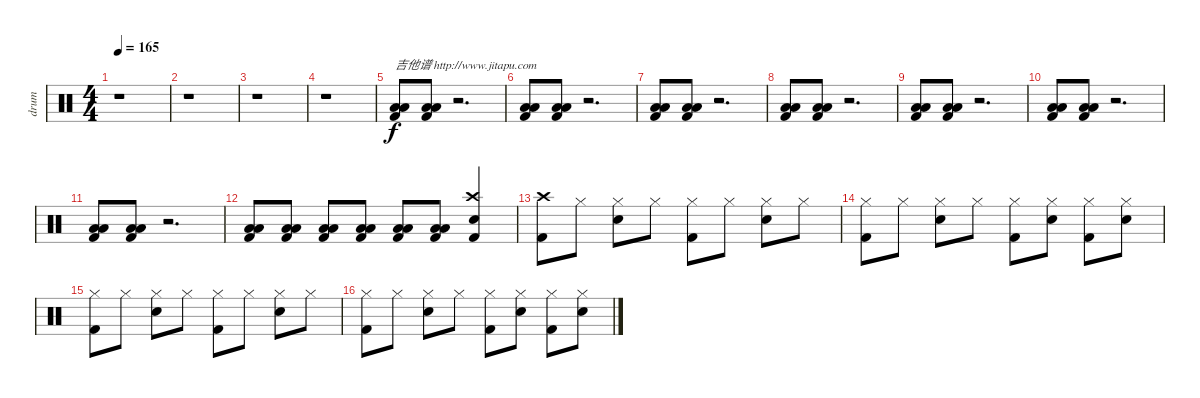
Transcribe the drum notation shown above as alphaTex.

\track ("drum" "drum") {instrument percussion}
\staff {score}
\articulation defaults
\ts (4 4)
\tempo 165
\clef neutral
\ks c
r.1{dy f} |
r.1 |
r.1 |
r.1 |
("Low Floor Tom (hit)" "Low Floor Tom (hit)" "Kick (hit) 2").8{txt "吉他谱 http://www.jitapu.com"} ("Low Floor Tom (hit)" "Low Floor Tom (hit)" "Kick (hit) 2").8 r.2{d} |
("Low Floor Tom (hit)" "Low Floor Tom (hit)" "Kick (hit) 2").8 ("Low Floor Tom (hit)" "Low Floor Tom (hit)" "Kick (hit) 2").8 r.2{d} |
("Low Floor Tom (hit)" "Low Floor Tom (hit)" "Kick (hit) 2").8 ("Low Floor Tom (hit)" "Low Floor Tom (hit)" "Kick (hit) 2").8 r.2{d} |
("Low Floor Tom (hit)" "Low Floor Tom (hit)" "Kick (hit) 2").8 ("Low Floor Tom (hit)" "Low Floor Tom (hit)" "Kick (hit) 2").8 r.2{d} |
("Low Floor Tom (hit)" "Low Floor Tom (hit)" "Kick (hit) 2").8 ("Low Floor Tom (hit)" "Low Floor Tom (hit)" "Kick (hit) 2").8 r.2{d} |
("Low Floor Tom (hit)" "Low Floor Tom (hit)" "Kick (hit) 2").8 ("Low Floor Tom (hit)" "Low Floor Tom (hit)" "Kick (hit) 2").8 r.2{d} |
("Low Floor Tom (hit)" "Low Floor Tom (hit)" "Kick (hit) 2").8 ("Low Floor Tom (hit)" "Low Floor Tom (hit)" "Kick (hit) 2").8 r.2{d} |
("Low Floor Tom (hit)" "Low Floor Tom (hit)" "Kick (hit) 2").8 ("Low Floor Tom (hit)" "Low Floor Tom (hit)" "Kick (hit) 2").8 ("Low Floor Tom (hit)" "Low Floor Tom (hit)" "Kick (hit) 2").8 ("Low Floor Tom (hit)" "Low Floor Tom (hit)" "Kick (hit) 2").8 ("Low Floor Tom (hit)" "Low Floor Tom (hit)" "Kick (hit) 2").8 ("Low Floor Tom (hit)" "Low Floor Tom (hit)" "Kick (hit) 2").8 ("Crash high (hit)" "Snare (hit) 2" "Kick (hit) 2").4 |
("Crash high (hit)" "Kick (hit) 2").8 "Hi-Hat (closed)".8 ("Hi-Hat (closed)" "Snare (hit) 2").8 "Hi-Hat (closed)".8 ("Hi-Hat (closed)" "Kick (hit) 2").8 "Hi-Hat (closed)".8 ("Hi-Hat (closed)" "Snare (hit) 2").8 "Hi-Hat (closed)".8 |
("Hi-Hat (closed)" "Kick (hit) 2").8 "Hi-Hat (closed)".8 ("Hi-Hat (closed)" "Snare (hit) 2").8 "Hi-Hat (closed)".8 ("Hi-Hat (closed)" "Kick (hit) 2").8 ("Hi-Hat (closed)" "Snare (hit) 2").8 ("Hi-Hat (closed)" "Kick (hit) 2").8 ("Hi-Hat (closed)" "Snare (hit) 2").8 |
("Hi-Hat (closed)" "Kick (hit) 2").8 "Hi-Hat (closed)".8 ("Hi-Hat (closed)" "Snare (hit) 2").8 "Hi-Hat (closed)".8 ("Hi-Hat (closed)" "Kick (hit) 2").8 "Hi-Hat (closed)".8 ("Hi-Hat (closed)" "Snare (hit) 2").8 "Hi-Hat (closed)".8 |
("Hi-Hat (closed)" "Kick (hit) 2").8 "Hi-Hat (closed)".8 ("Hi-Hat (closed)" "Snare (hit) 2").8 "Hi-Hat (closed)".8 ("Hi-Hat (closed)" "Kick (hit) 2").8 ("Hi-Hat (closed)" "Snare (hit) 2").8 ("Hi-Hat (closed)" "Kick (hit) 2").8 ("Hi-Hat (closed)" "Snare (hit) 2").8
